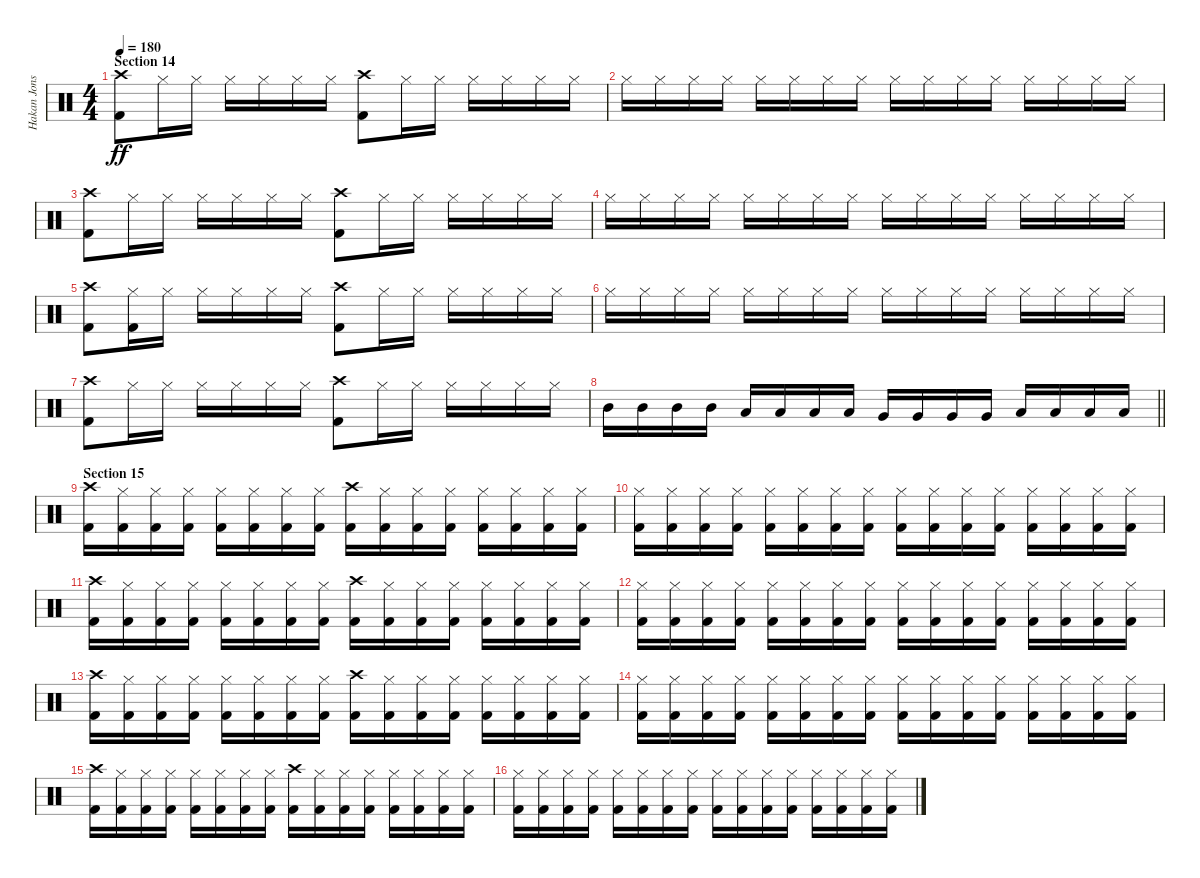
\track ("Hakan Jonsson" "Hakan Jons") {instrument percussion}
\staff {score}
\articulation defaults
\ts (4 4)
\section ("" "Section 14")
\tempo 180
\clef neutral
\ks c
("Crash high (hit)" "Kick (hit) 2").8{dy ff} "Hi-Hat (closed)".16 "Hi-Hat (closed)".16 "Hi-Hat (closed)".16 "Hi-Hat (closed)".16 "Hi-Hat (closed)".16 "Hi-Hat (closed)".16 ("Crash high (hit)" "Kick (hit) 2").8 "Hi-Hat (closed)".16 "Hi-Hat (closed)".16 "Hi-Hat (closed)".16 "Hi-Hat (closed)".16 "Hi-Hat (closed)".16 "Hi-Hat (closed)".16 |
"Hi-Hat (closed)".16 "Hi-Hat (closed)".16 "Hi-Hat (closed)".16 "Hi-Hat (closed)".16 "Hi-Hat (closed)".16 "Hi-Hat (closed)".16 "Hi-Hat (closed)".16 "Hi-Hat (closed)".16 "Hi-Hat (closed)".16 "Hi-Hat (closed)".16 "Hi-Hat (closed)".16 "Hi-Hat (closed)".16 "Hi-Hat (closed)".16 "Hi-Hat (closed)".16 "Hi-Hat (closed)".16 "Hi-Hat (closed)".16 |
("Crash high (hit)" "Kick (hit) 2").8 "Hi-Hat (closed)".16 "Hi-Hat (closed)".16 "Hi-Hat (closed)".16 "Hi-Hat (closed)".16 "Hi-Hat (closed)".16 "Hi-Hat (closed)".16 ("Crash high (hit)" "Kick (hit) 2").8 "Hi-Hat (closed)".16 "Hi-Hat (closed)".16 "Hi-Hat (closed)".16 "Hi-Hat (closed)".16 "Hi-Hat (closed)".16 "Hi-Hat (closed)".16 |
"Hi-Hat (closed)".16 "Hi-Hat (closed)".16 "Hi-Hat (closed)".16 "Hi-Hat (closed)".16 "Hi-Hat (closed)".16 "Hi-Hat (closed)".16 "Hi-Hat (closed)".16 "Hi-Hat (closed)".16 "Hi-Hat (closed)".16 "Hi-Hat (closed)".16 "Hi-Hat (closed)".16 "Hi-Hat (closed)".16 "Hi-Hat (closed)".16 "Hi-Hat (closed)".16 "Hi-Hat (closed)".16 "Hi-Hat (closed)".16 |
("Crash high (hit)" "Kick (hit) 2").8 ("Hi-Hat (closed)" "Kick (hit) 2").16 "Hi-Hat (closed)".16 "Hi-Hat (closed)".16 "Hi-Hat (closed)".16 "Hi-Hat (closed)".16 "Hi-Hat (closed)".16 ("Crash high (hit)" "Kick (hit) 2").8 "Hi-Hat (closed)".16 "Hi-Hat (closed)".16 "Hi-Hat (closed)".16 "Hi-Hat (closed)".16 "Hi-Hat (closed)".16 "Hi-Hat (closed)".16 |
"Hi-Hat (closed)".16 "Hi-Hat (closed)".16 "Hi-Hat (closed)".16 "Hi-Hat (closed)".16 "Hi-Hat (closed)".16 "Hi-Hat (closed)".16 "Hi-Hat (closed)".16 "Hi-Hat (closed)".16 "Hi-Hat (closed)".16 "Hi-Hat (closed)".16 "Hi-Hat (closed)".16 "Hi-Hat (closed)".16 "Hi-Hat (closed)".16 "Hi-Hat (closed)".16 "Hi-Hat (closed)".16 "Hi-Hat (closed)".16 |
("Crash high (hit)" "Kick (hit) 2").8 "Hi-Hat (closed)".16 "Hi-Hat (closed)".16 "Hi-Hat (closed)".16 "Hi-Hat (closed)".16 "Hi-Hat (closed)".16 "Hi-Hat (closed)".16 ("Crash high (hit)" "Kick (hit) 2").8 "Hi-Hat (closed)".16 "Hi-Hat (closed)".16 "Hi-Hat (closed)".16 "Hi-Hat (closed)".16 "Hi-Hat (closed)".16 "Hi-Hat (closed)".16 |
\barLineRight lightlight "Mid Tom (hit)".16 "Mid Tom (hit)".16 "Mid Tom (hit)".16 "Mid Tom (hit)".16 "Low Tom (hit)".16 "Low Tom (hit)".16 "Low Tom (hit)".16 "Low Tom (hit)".16 "Very Low Tom (hit)".16 "Very Low Tom (hit)".16 "Very Low Tom (hit)".16 "Very Low Tom (hit)".16 "Low Floor Tom (hit)".16 "Low Floor Tom (hit)".16 "Low Floor Tom (hit)".16 "Low Floor Tom (hit)".16
|
\section ("" "Section 15")
("Crash high (hit)" "Kick (hit) 2").16 ("Hi-Hat (closed)" "Kick (hit) 2").16 ("Hi-Hat (closed)" "Kick (hit) 2").16 ("Hi-Hat (closed)" "Kick (hit) 2").16 ("Hi-Hat (closed)" "Kick (hit) 2").16 ("Hi-Hat (closed)" "Kick (hit) 2").16 ("Hi-Hat (closed)" "Kick (hit) 2").16 ("Hi-Hat (closed)" "Kick (hit) 2").16 ("Crash high (hit)" "Kick (hit) 2").16 ("Hi-Hat (closed)" "Kick (hit) 2").16 ("Hi-Hat (closed)" "Kick (hit) 2").16 ("Hi-Hat (closed)" "Kick (hit) 2").16 ("Hi-Hat (closed)" "Kick (hit) 2").16 ("Hi-Hat (closed)" "Kick (hit) 2").16 ("Hi-Hat (closed)" "Kick (hit) 2").16 ("Hi-Hat (closed)" "Kick (hit) 2").16 |
("Hi-Hat (closed)" "Kick (hit) 2").16 ("Hi-Hat (closed)" "Kick (hit) 2").16 ("Hi-Hat (closed)" "Kick (hit) 2").16 ("Hi-Hat (closed)" "Kick (hit) 2").16 ("Hi-Hat (closed)" "Kick (hit) 2").16 ("Hi-Hat (closed)" "Kick (hit) 2").16 ("Hi-Hat (closed)" "Kick (hit) 2").16 ("Hi-Hat (closed)" "Kick (hit) 2").16 ("Hi-Hat (closed)" "Kick (hit) 2").16 ("Hi-Hat (closed)" "Kick (hit) 2").16 ("Hi-Hat (closed)" "Kick (hit) 2").16 ("Hi-Hat (closed)" "Kick (hit) 2").16 ("Hi-Hat (closed)" "Kick (hit) 2").16 ("Hi-Hat (closed)" "Kick (hit) 2").16 ("Hi-Hat (closed)" "Kick (hit) 2").16 ("Hi-Hat (closed)" "Kick (hit) 2").16 |
("Crash high (hit)" "Kick (hit) 2").16 ("Hi-Hat (closed)" "Kick (hit) 2").16 ("Hi-Hat (closed)" "Kick (hit) 2").16 ("Hi-Hat (closed)" "Kick (hit) 2").16 ("Hi-Hat (closed)" "Kick (hit) 2").16 ("Hi-Hat (closed)" "Kick (hit) 2").16 ("Hi-Hat (closed)" "Kick (hit) 2").16 ("Hi-Hat (closed)" "Kick (hit) 2").16 ("Crash high (hit)" "Kick (hit) 2").16 ("Hi-Hat (closed)" "Kick (hit) 2").16 ("Hi-Hat (closed)" "Kick (hit) 2").16 ("Hi-Hat (closed)" "Kick (hit) 2").16 ("Hi-Hat (closed)" "Kick (hit) 2").16 ("Hi-Hat (closed)" "Kick (hit) 2").16 ("Hi-Hat (closed)" "Kick (hit) 2").16 ("Hi-Hat (closed)" "Kick (hit) 2").16 |
("Hi-Hat (closed)" "Kick (hit) 2").16 ("Hi-Hat (closed)" "Kick (hit) 2").16 ("Hi-Hat (closed)" "Kick (hit) 2").16 ("Hi-Hat (closed)" "Kick (hit) 2").16 ("Hi-Hat (closed)" "Kick (hit) 2").16 ("Hi-Hat (closed)" "Kick (hit) 2").16 ("Hi-Hat (closed)" "Kick (hit) 2").16 ("Hi-Hat (closed)" "Kick (hit) 2").16 ("Hi-Hat (closed)" "Kick (hit) 2").16 ("Hi-Hat (closed)" "Kick (hit) 2").16 ("Hi-Hat (closed)" "Kick (hit) 2").16 ("Hi-Hat (closed)" "Kick (hit) 2").16 ("Hi-Hat (closed)" "Kick (hit) 2").16 ("Hi-Hat (closed)" "Kick (hit) 2").16 ("Hi-Hat (closed)" "Kick (hit) 2").16 ("Hi-Hat (closed)" "Kick (hit) 2").16 |
("Crash high (hit)" "Kick (hit) 2").16 ("Hi-Hat (closed)" "Kick (hit) 2").16 ("Hi-Hat (closed)" "Kick (hit) 2").16 ("Hi-Hat (closed)" "Kick (hit) 2").16 ("Hi-Hat (closed)" "Kick (hit) 2").16 ("Hi-Hat (closed)" "Kick (hit) 2").16 ("Hi-Hat (closed)" "Kick (hit) 2").16 ("Hi-Hat (closed)" "Kick (hit) 2").16 ("Crash high (hit)" "Kick (hit) 2").16 ("Hi-Hat (closed)" "Kick (hit) 2").16 ("Hi-Hat (closed)" "Kick (hit) 2").16 ("Hi-Hat (closed)" "Kick (hit) 2").16 ("Hi-Hat (closed)" "Kick (hit) 2").16 ("Hi-Hat (closed)" "Kick (hit) 2").16 ("Hi-Hat (closed)" "Kick (hit) 2").16 ("Hi-Hat (closed)" "Kick (hit) 2").16 |
("Hi-Hat (closed)" "Kick (hit) 2").16 ("Hi-Hat (closed)" "Kick (hit) 2").16 ("Hi-Hat (closed)" "Kick (hit) 2").16 ("Hi-Hat (closed)" "Kick (hit) 2").16 ("Hi-Hat (closed)" "Kick (hit) 2").16 ("Hi-Hat (closed)" "Kick (hit) 2").16 ("Hi-Hat (closed)" "Kick (hit) 2").16 ("Hi-Hat (closed)" "Kick (hit) 2").16 ("Hi-Hat (closed)" "Kick (hit) 2").16 ("Hi-Hat (closed)" "Kick (hit) 2").16 ("Hi-Hat (closed)" "Kick (hit) 2").16 ("Hi-Hat (closed)" "Kick (hit) 2").16 ("Hi-Hat (closed)" "Kick (hit) 2").16 ("Hi-Hat (closed)" "Kick (hit) 2").16 ("Hi-Hat (closed)" "Kick (hit) 2").16 ("Hi-Hat (closed)" "Kick (hit) 2").16 |
("Crash high (hit)" "Kick (hit) 2").16 ("Hi-Hat (closed)" "Kick (hit) 2").16 ("Hi-Hat (closed)" "Kick (hit) 2").16 ("Hi-Hat (closed)" "Kick (hit) 2").16 ("Hi-Hat (closed)" "Kick (hit) 2").16 ("Hi-Hat (closed)" "Kick (hit) 2").16 ("Hi-Hat (closed)" "Kick (hit) 2").16 ("Hi-Hat (closed)" "Kick (hit) 2").16 ("Crash high (hit)" "Kick (hit) 2").16 ("Hi-Hat (closed)" "Kick (hit) 2").16 ("Hi-Hat (closed)" "Kick (hit) 2").16 ("Hi-Hat (closed)" "Kick (hit) 2").16 ("Hi-Hat (closed)" "Kick (hit) 2").16 ("Hi-Hat (closed)" "Kick (hit) 2").16 ("Hi-Hat (closed)" "Kick (hit) 2").16 ("Hi-Hat (closed)" "Kick (hit) 2").16 |
("Hi-Hat (closed)" "Kick (hit) 2").16 ("Hi-Hat (closed)" "Kick (hit) 2").16 ("Hi-Hat (closed)" "Kick (hit) 2").16 ("Hi-Hat (closed)" "Kick (hit) 2").16 ("Hi-Hat (closed)" "Kick (hit) 2").16 ("Hi-Hat (closed)" "Kick (hit) 2").16 ("Hi-Hat (closed)" "Kick (hit) 2").16 ("Hi-Hat (closed)" "Kick (hit) 2").16 ("Hi-Hat (closed)" "Kick (hit) 2").16 ("Hi-Hat (closed)" "Kick (hit) 2").16 ("Hi-Hat (closed)" "Kick (hit) 2").16 ("Hi-Hat (closed)" "Kick (hit) 2").16 ("Hi-Hat (closed)" "Kick (hit) 2").16 ("Hi-Hat (closed)" "Kick (hit) 2").16 ("Hi-Hat (closed)" "Kick (hit) 2").16 ("Hi-Hat (closed)" "Kick (hit) 2").16
